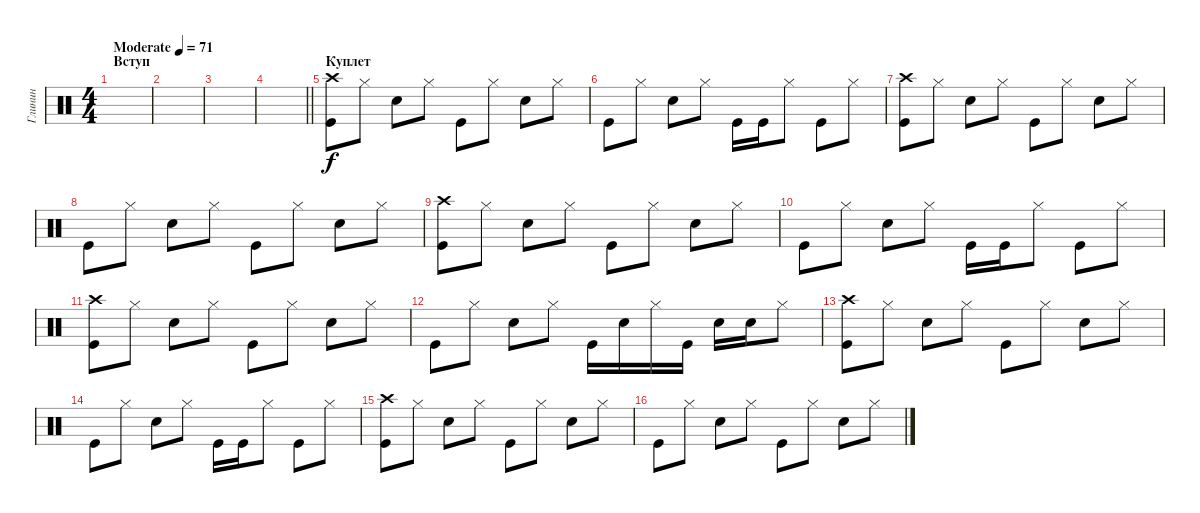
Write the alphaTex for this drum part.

\track ("Глинин" "Глинин") {instrument percussion}
\staff {score}
\articulation defaults
\ts (4 4)
\section ("" "Вступ")
\tempo (71 "Moderate")
\clef neutral
\ks c
|
|
|
\barLineRight lightlight
|
\section ("" "Куплет")
("Kick (hit)" "Crash high (hit)").8 "Hi-Hat (closed)".8 "Snare (hit) 2".8 "Hi-Hat (closed)".8 "Kick (hit)".8 "Hi-Hat (closed)".8 "Snare (hit) 2".8 "Hi-Hat (closed)".8 |
"Kick (hit)".8 "Hi-Hat (closed)".8 "Snare (hit) 2".8 "Hi-Hat (closed)".8 "Kick (hit)".16 "Kick (hit)".16 "Hi-Hat (closed)".8 "Kick (hit)".8 "Hi-Hat (closed)".8 |
("Kick (hit)" "Crash high (hit)").8 "Hi-Hat (closed)".8 "Snare (hit) 2".8 "Hi-Hat (closed)".8 "Kick (hit)".8 "Hi-Hat (closed)".8 "Snare (hit) 2".8 "Hi-Hat (closed)".8 |
"Kick (hit)".8 "Hi-Hat (closed)".8 "Snare (hit) 2".8 "Hi-Hat (closed)".8 "Kick (hit)".8 "Hi-Hat (closed)".8 "Snare (hit) 2".8 "Hi-Hat (closed)".8 |
("Kick (hit)" "Crash high (hit)").8 "Hi-Hat (closed)".8 "Snare (hit) 2".8 "Hi-Hat (closed)".8 "Kick (hit)".8 "Hi-Hat (closed)".8 "Snare (hit) 2".8 "Hi-Hat (closed)".8 |
"Kick (hit)".8 "Hi-Hat (closed)".8 "Snare (hit) 2".8 "Hi-Hat (closed)".8 "Kick (hit)".16 "Kick (hit)".16 "Hi-Hat (closed)".8 "Kick (hit)".8 "Hi-Hat (closed)".8 |
("Kick (hit)" "Crash high (hit)").8 "Hi-Hat (closed)".8 "Snare (hit) 2".8 "Hi-Hat (closed)".8 "Kick (hit)".8 "Hi-Hat (closed)".8 "Snare (hit) 2".8 "Hi-Hat (closed)".8 |
"Kick (hit)".8 "Hi-Hat (closed)".8 "Snare (hit) 2".8 "Hi-Hat (closed)".8 "Kick (hit)".16 "Snare (hit) 2".16 "Hi-Hat (closed)".16 "Kick (hit)".16 "Snare (hit) 2".16 "Snare (hit) 2".16 "Hi-Hat (closed)".8 |
("Kick (hit)" "Crash high (hit)").8 "Hi-Hat (closed)".8 "Snare (hit) 2".8 "Hi-Hat (closed)".8 "Kick (hit)".8 "Hi-Hat (closed)".8 "Snare (hit) 2".8 "Hi-Hat (closed)".8 |
"Kick (hit)".8 "Hi-Hat (closed)".8 "Snare (hit) 2".8 "Hi-Hat (closed)".8 "Kick (hit)".16 "Kick (hit)".16 "Hi-Hat (closed)".8 "Kick (hit)".8 "Hi-Hat (closed)".8 |
("Kick (hit)" "Crash high (hit)").8 "Hi-Hat (closed)".8 "Snare (hit) 2".8 "Hi-Hat (closed)".8 "Kick (hit)".8 "Hi-Hat (closed)".8 "Snare (hit) 2".8 "Hi-Hat (closed)".8 |
"Kick (hit)".8 "Hi-Hat (closed)".8 "Snare (hit) 2".8 "Hi-Hat (closed)".8 "Kick (hit)".8 "Hi-Hat (closed)".8 "Snare (hit) 2".8 "Hi-Hat (closed)".8
